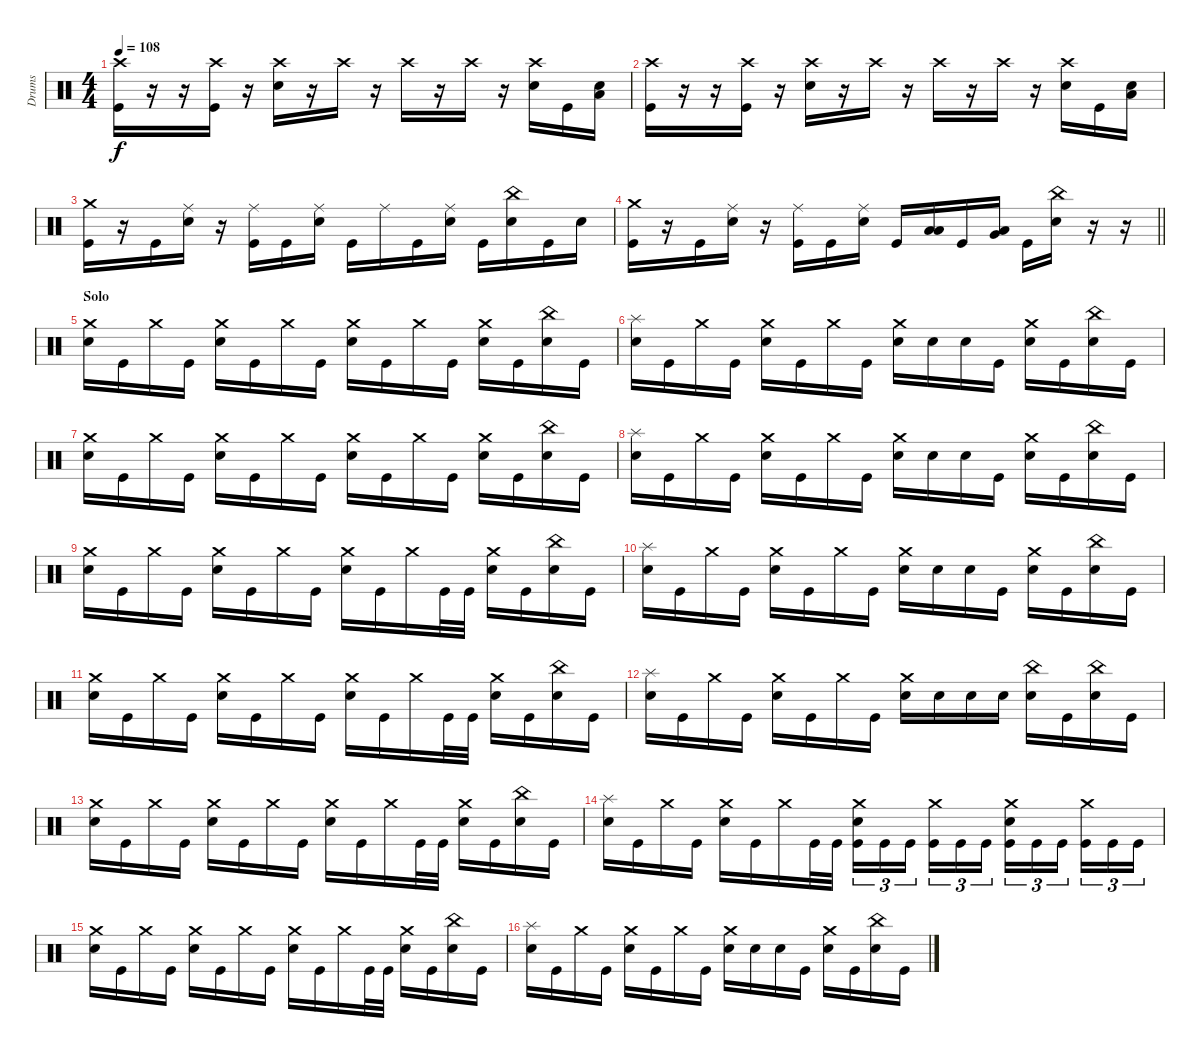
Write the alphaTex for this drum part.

\track ("Drums" "Drums") {instrument percussion}
\staff {score}
\articulation defaults
\ts (4 4)
\tempo 108
\clef neutral
\ks c
("Crash high (hit)" "Kick (hit)").16{dy f} r.16 r.16 ("Crash high (hit)" "Kick (hit)").16 r.16 ("Crash high (hit)" "Snare (hit) 2").16 r.16 "Crash high (hit)".16 r.16 "Crash high (hit)".16 r.16 "Crash high (hit)".16 r.16 ("Crash high (hit)" "Snare (hit) 2").16 "Kick (hit)".16 ("Snare (hit) 2" "Low Floor Tom (hit)").16 |
("Crash high (hit)" "Kick (hit)").16 r.16 r.16 ("Crash high (hit)" "Kick (hit)").16 r.16 ("Crash high (hit)" "Snare (hit) 2").16 r.16 "Crash high (hit)".16 r.16 "Crash high (hit)".16 r.16 "Crash high (hit)".16 r.16 ("Crash high (hit)" "Snare (hit) 2").16 "Kick (hit)".16 ("Snare (hit) 2" "Low Floor Tom (hit)").16 |
("Crash medium (hit)" "Kick (hit)").16 r.16 "Kick (hit)".16 ("Ride (middle)" "Snare (hit) 2").16 r.16 ("Ride (middle)" "Kick (hit)").16 "Kick (hit)".16 ("Ride (middle)" "Snare (hit) 2").16 "Kick (hit)".16 "Ride (middle)".16 "Kick (hit)".16 ("Ride (middle)" "Snare (hit) 2").16 "Kick (hit)".16 ("China (hit)" "Snare (hit) 2").16 "Kick (hit)".16 "Snare (hit) 2".16 |
\barLineRight lightlight
("Crash medium (hit)" "Kick (hit)").16 r.16 "Kick (hit)".16 ("Ride (middle)" "Snare (hit) 2").16 r.16 ("Ride (middle)" "Kick (hit)").16 "Kick (hit)".16 ("Ride (middle)" "Snare (hit) 2").16 "Kick (hit)".16 ("Low Tom (hit)" "Low Floor Tom (hit)").16 "Kick (hit)".16 ("Very Low Tom (hit)" "Low Floor Tom (hit)").16 "Kick (hit)".16 ("China (hit)" "Snare (hit) 2").16 r.16 r.16 |
\section ("" "Solo")
("Crash medium (hit)" "Snare (hit) 2").16 "Kick (hit)".16 "Crash medium (hit)".16 "Kick (hit)".16 ("Crash medium (hit)" "Snare (hit) 2").16 "Kick (hit)".16 "Crash medium (hit)".16 "Kick (hit)".16 ("Crash medium (hit)" "Snare (hit) 2").16 "Kick (hit)".16 "Crash medium (hit)".16 "Kick (hit)".16 ("Crash medium (hit)" "Snare (hit) 2").16 "Kick (hit)".16 ("China (hit)" "Snare (hit) 2").16 "Kick (hit)".16 |
("Splash (hit)" "Snare (hit) 2").16 "Kick (hit)".16 "Crash medium (hit)".16 "Kick (hit)".16 ("Crash medium (hit)" "Snare (hit) 2").16 "Kick (hit)".16 "Crash medium (hit)".16 "Kick (hit)".16 ("Crash medium (hit)" "Snare (hit) 2").16 "Snare (hit) 2".16 "Snare (hit) 2".16 "Kick (hit)".16 ("Crash medium (hit)" "Snare (hit) 2").16 "Kick (hit)".16 ("China (hit)" "Snare (hit) 2").16 "Kick (hit)".16 |
("Crash medium (hit)" "Snare (hit) 2").16 "Kick (hit)".16 "Crash medium (hit)".16 "Kick (hit)".16 ("Crash medium (hit)" "Snare (hit) 2").16 "Kick (hit)".16 "Crash medium (hit)".16 "Kick (hit)".16 ("Crash medium (hit)" "Snare (hit) 2").16 "Kick (hit)".16 "Crash medium (hit)".16 "Kick (hit)".16 ("Crash medium (hit)" "Snare (hit) 2").16 "Kick (hit)".16 ("China (hit)" "Snare (hit) 2").16 "Kick (hit)".16 |
("Splash (hit)" "Snare (hit) 2").16 "Kick (hit)".16 "Crash medium (hit)".16 "Kick (hit)".16 ("Crash medium (hit)" "Snare (hit) 2").16 "Kick (hit)".16 "Crash medium (hit)".16 "Kick (hit)".16 ("Crash medium (hit)" "Snare (hit) 2").16 "Snare (hit) 2".16 "Snare (hit) 2".16 "Kick (hit)".16 ("Crash medium (hit)" "Snare (hit) 2").16 "Kick (hit)".16 ("China (hit)" "Snare (hit) 2").16 "Kick (hit)".16 |
("Crash medium (hit)" "Snare (hit) 2").16 "Kick (hit)".16 "Crash medium (hit)".16 "Kick (hit)".16 ("Crash medium (hit)" "Snare (hit) 2").16 "Kick (hit)".16 "Crash medium (hit)".16 "Kick (hit)".16 ("Crash medium (hit)" "Snare (hit) 2").16 "Kick (hit)".16 "Crash medium (hit)".16 "Kick (hit)".32 "Kick (hit)".32 ("Crash medium (hit)" "Snare (hit) 2").16 "Kick (hit)".16 ("China (hit)" "Snare (hit) 2").16 "Kick (hit)".16 |
("Splash (hit)" "Snare (hit) 2").16 "Kick (hit)".16 "Crash medium (hit)".16 "Kick (hit)".16 ("Crash medium (hit)" "Snare (hit) 2").16 "Kick (hit)".16 "Crash medium (hit)".16 "Kick (hit)".16 ("Crash medium (hit)" "Snare (hit) 2").16 "Snare (hit) 2".16 "Snare (hit) 2".16 "Kick (hit)".16 ("Crash medium (hit)" "Snare (hit) 2").16 "Kick (hit)".16 ("China (hit)" "Snare (hit) 2").16 "Kick (hit)".16 |
("Crash medium (hit)" "Snare (hit) 2").16 "Kick (hit)".16 "Crash medium (hit)".16 "Kick (hit)".16 ("Crash medium (hit)" "Snare (hit) 2").16 "Kick (hit)".16 "Crash medium (hit)".16 "Kick (hit)".16 ("Crash medium (hit)" "Snare (hit) 2").16 "Kick (hit)".16 "Crash medium (hit)".16 "Kick (hit)".32 "Kick (hit)".32 ("Crash medium (hit)" "Snare (hit) 2").16 "Kick (hit)".16 ("China (hit)" "Snare (hit) 2").16 "Kick (hit)".16 |
("Splash (hit)" "Snare (hit) 2").16 "Kick (hit)".16 "Crash medium (hit)".16 "Kick (hit)".16 ("Crash medium (hit)" "Snare (hit) 2").16 "Kick (hit)".16 "Crash medium (hit)".16 "Kick (hit)".16 ("Crash medium (hit)" "Snare (hit) 2").16 "Snare (hit) 2".16 "Snare (hit) 2".16 "Snare (hit) 2".16 ("China (hit)" "Snare (hit) 2").16 "Kick (hit)".16 ("China (hit)" "Snare (hit) 2").16 "Kick (hit)".16 |
("Crash medium (hit)" "Snare (hit) 2").16 "Kick (hit)".16 "Crash medium (hit)".16 "Kick (hit)".16 ("Crash medium (hit)" "Snare (hit) 2").16 "Kick (hit)".16 "Crash medium (hit)".16 "Kick (hit)".16 ("Crash medium (hit)" "Snare (hit) 2").16 "Kick (hit)".16 "Crash medium (hit)".16 "Kick (hit)".32 "Kick (hit)".32 ("Crash medium (hit)" "Snare (hit) 2").16 "Kick (hit)".16 ("China (hit)" "Snare (hit) 2").16 "Kick (hit)".16 |
("Splash (hit)" "Snare (hit) 2").16 "Kick (hit)".16 "Crash medium (hit)".16 "Kick (hit)".16 ("Crash medium (hit)" "Snare (hit) 2").16 "Kick (hit)".16 "Crash medium (hit)".16 "Kick (hit)".32 "Kick (hit)".32 ("Crash medium (hit)" "Snare (hit) 2" "Kick (hit)").16{tu (3 2)} "Kick (hit)".16{tu (3 2)} "Kick (hit)".16{tu (3 2) beam splitsecondary} ("Crash medium (hit)" "Kick (hit)").16{tu (3 2)} "Kick (hit)".16{tu (3 2)} "Kick (hit)".16{tu (3 2)} ("Crash medium (hit)" "Snare (hit) 2" "Kick (hit)").16{tu (3 2)} "Kick (hit)".16{tu (3 2)} "Kick (hit)".16{tu (3 2) beam splitsecondary} ("Crash medium (hit)" "Kick (hit)").16{tu (3 2)} "Kick (hit)".16{tu (3 2)} "Kick (hit)".16{tu (3 2)} |
("Crash medium (hit)" "Snare (hit) 2").16 "Kick (hit)".16 "Crash medium (hit)".16 "Kick (hit)".16 ("Crash medium (hit)" "Snare (hit) 2").16 "Kick (hit)".16 "Crash medium (hit)".16 "Kick (hit)".16 ("Crash medium (hit)" "Snare (hit) 2").16 "Kick (hit)".16 "Crash medium (hit)".16 "Kick (hit)".32 "Kick (hit)".32 ("Crash medium (hit)" "Snare (hit) 2").16 "Kick (hit)".16 ("China (hit)" "Snare (hit) 2").16 "Kick (hit)".16 |
("Splash (hit)" "Snare (hit) 2").16 "Kick (hit)".16 "Crash medium (hit)".16 "Kick (hit)".16 ("Crash medium (hit)" "Snare (hit) 2").16 "Kick (hit)".16 "Crash medium (hit)".16 "Kick (hit)".16 ("Crash medium (hit)" "Snare (hit) 2").16 "Snare (hit) 2".16 "Snare (hit) 2".16 "Kick (hit)".16 ("Crash medium (hit)" "Snare (hit) 2").16 "Kick (hit)".16 ("China (hit)" "Snare (hit) 2").16 "Kick (hit)".16
